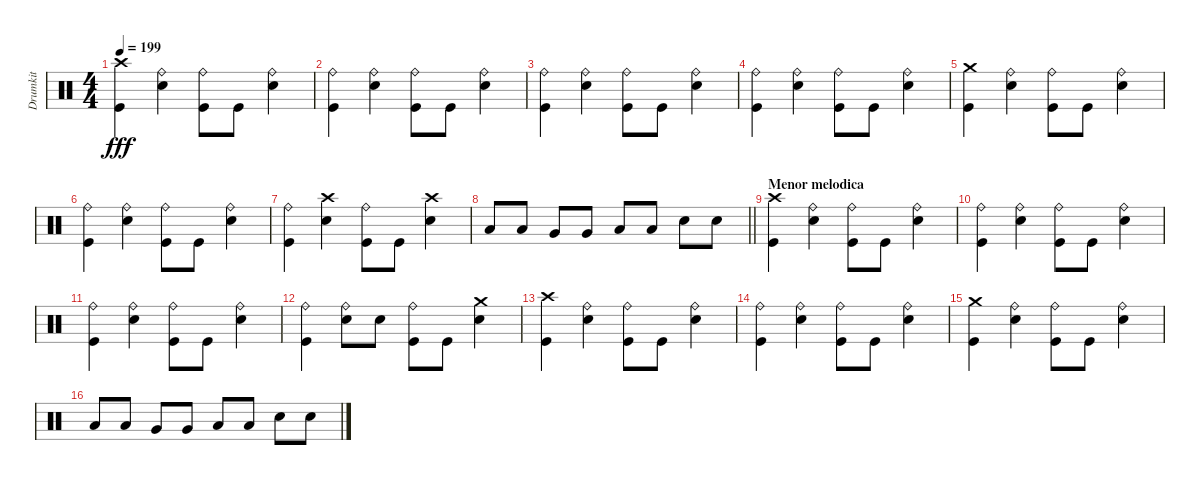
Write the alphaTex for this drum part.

\track ("Drumkit" "Drumkit") {instrument percussion}
\staff
\articulation defaults
\ts (4 4)
\tempo 199
\clef neutral
\ks c
("Kick (hit)" "Crash high (hit)").4{dy fff} ("Snare (hit) 2" "Ride (bell)").4 ("Kick (hit)" "Ride (bell)").8 "Kick (hit)".8 ("Snare (hit) 2" "Ride (bell)").4 |
("Kick (hit)" "Ride (bell)").4 ("Snare (hit) 2" "Ride (bell)").4 ("Kick (hit)" "Ride (bell)").8 "Kick (hit)".8 ("Snare (hit) 2" "Ride (bell)").4 |
("Kick (hit)" "Ride (bell)").4 ("Snare (hit) 2" "Ride (bell)").4 ("Kick (hit)" "Ride (bell)").8 "Kick (hit)".8 ("Snare (hit) 2" "Ride (bell)").4 |
("Kick (hit)" "Ride (bell)").4 ("Snare (hit) 2" "Ride (bell)").4 ("Kick (hit)" "Ride (bell)").8 "Kick (hit)".8 ("Snare (hit) 2" "Ride (bell)").4 |
("Kick (hit)" "Crash medium (hit)").4 ("Snare (hit) 2" "Ride (bell)").4 ("Kick (hit)" "Ride (bell)").8 "Kick (hit)".8 ("Snare (hit) 2" "Ride (bell)").4 |
("Kick (hit)" "Ride (bell)").4 ("Snare (hit) 2" "Ride (bell)").4 ("Kick (hit)" "Ride (bell)").8 "Kick (hit)".8 ("Snare (hit) 2" "Ride (bell)").4 |
("Kick (hit)" "Ride (bell)").4 ("Snare (hit) 2" "Crash high (hit)").4 ("Kick (hit)" "Ride (bell)").8 "Kick (hit)".8 ("Snare (hit) 2" "Crash high (hit)").4 |
\barLineRight lightlight "Low Tom (hit)".8 "Low Tom (hit)".8 "Very Low Tom (hit)".8 "Very Low Tom (hit)".8 "Low Floor Tom (hit)".8 "Low Floor Tom (hit)".8 "Snare (hit) 2".8 "Snare (hit) 2".8
|
\section ("" "Menor melodica")
("Crash high (hit)" "Kick (hit)").4 ("Snare (hit) 2" "Ride (bell)").4 ("Kick (hit)" "Ride (bell)").8 "Kick (hit)".8 ("Snare (hit) 2" "Ride (bell)").4 |
("Kick (hit)" "Ride (bell)").4 ("Snare (hit) 2" "Ride (bell)").4 ("Kick (hit)" "Ride (bell)").8 "Kick (hit)".8 ("Snare (hit) 2" "Ride (bell)").4 |
("Kick (hit)" "Ride (bell)").4 ("Snare (hit) 2" "Ride (bell)").4 ("Kick (hit)" "Ride (bell)").8 "Kick (hit)".8 ("Snare (hit) 2" "Ride (bell)").4 |
("Kick (hit)" "Ride (bell)").4 ("Snare (hit) 2" "Ride (bell)").8 "Snare (hit) 2".8 ("Kick (hit)" "Ride (bell)").8 "Kick (hit)".8 ("Snare (hit) 2" "Crash medium (hit)").4 |
("Crash high (hit)" "Kick (hit)").4 ("Snare (hit) 2" "Ride (bell)").4 ("Kick (hit)" "Ride (bell)").8 "Kick (hit)".8 ("Snare (hit) 2" "Ride (bell)").4 |
("Kick (hit)" "Ride (bell)").4 ("Snare (hit) 2" "Ride (bell)").4 ("Kick (hit)" "Ride (bell)").8 "Kick (hit)".8 ("Snare (hit) 2" "Ride (bell)").4 |
("Kick (hit)" "Crash medium (hit)").4 ("Snare (hit) 2" "Ride (bell)").4 ("Kick (hit)" "Ride (bell)").8 "Kick (hit)".8 ("Snare (hit) 2" "Ride (bell)").4 |
"Low Tom (hit)".8 "Low Tom (hit)".8 "Very Low Tom (hit)".8 "Very Low Tom (hit)".8 "Low Floor Tom (hit)".8 "Low Floor Tom (hit)".8 "Snare (hit) 2".8 "Snare (hit) 2".8
